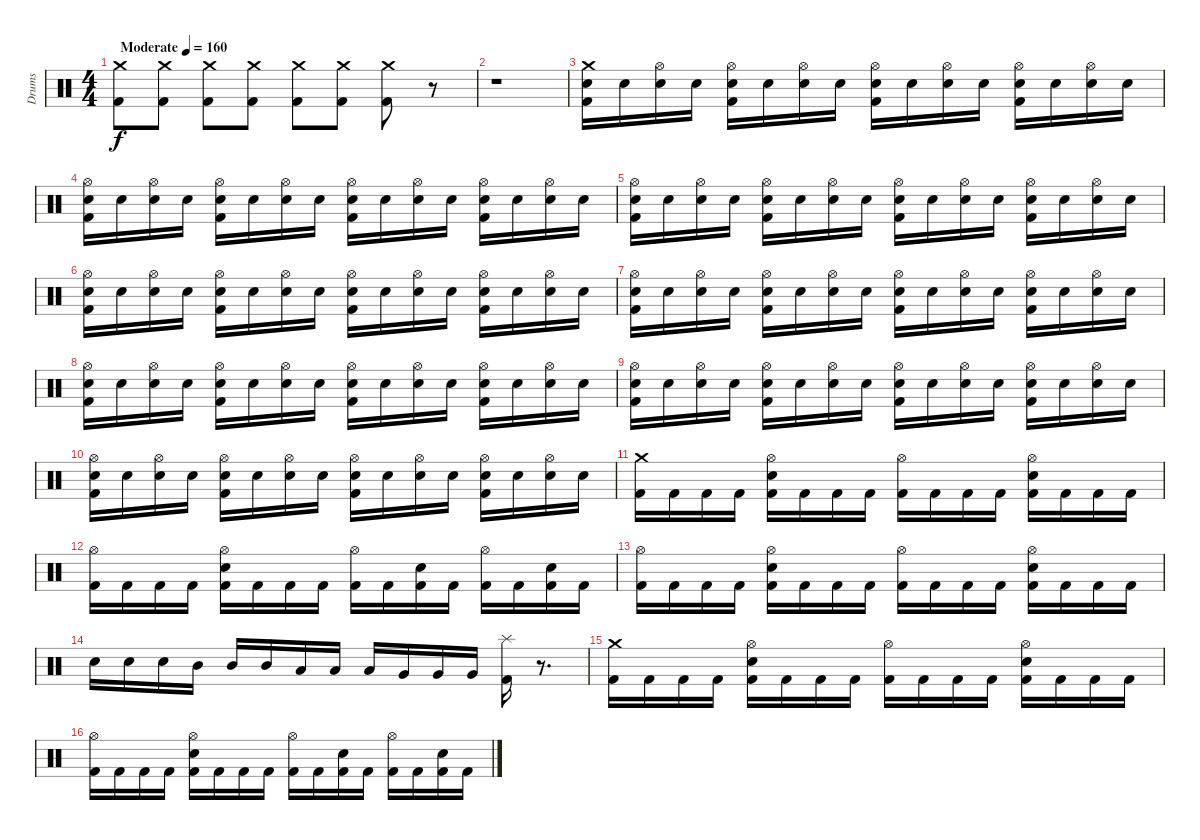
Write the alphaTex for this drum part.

\track ("Drums" "Drums") {instrument percussion}
\staff {score}
\articulation defaults
\ts (4 4)
\tempo (160 "Moderate")
\clef neutral
\ks c
("Kick (hit) 2" "Crash medium (hit)").8{dy f} ("Kick (hit) 2" "Crash medium (hit)").8 ("Crash medium (hit)" "Kick (hit) 2").8 ("Kick (hit) 2" "Crash medium (hit)").8 ("Kick (hit) 2" "Crash medium (hit)").8 ("Kick (hit) 2" "Crash medium (hit)").8 ("Crash medium (hit)" "Kick (hit) 2").8 r.8 |
r.1 |
("Crash medium (hit)" "Electric Snare (hit)" "Kick (hit) 2").16 "Electric Snare (hit)".16 ("Hi-Hat (open)" "Electric Snare (hit)").16 "Electric Snare (hit)".16 ("Hi-Hat (open)" "Kick (hit) 2" "Electric Snare (hit)").16 "Electric Snare (hit)".16 ("Hi-Hat (open)" "Electric Snare (hit)").16 "Electric Snare (hit)".16 ("Hi-Hat (open)" "Kick (hit) 2" "Electric Snare (hit)").16 "Electric Snare (hit)".16 ("Hi-Hat (open)" "Electric Snare (hit)").16 "Electric Snare (hit)".16 ("Hi-Hat (open)" "Kick (hit) 2" "Electric Snare (hit)").16 "Electric Snare (hit)".16 ("Hi-Hat (open)" "Electric Snare (hit)").16 "Electric Snare (hit)".16 |
("Electric Snare (hit)" "Kick (hit) 2" "Hi-Hat (open)").16 "Electric Snare (hit)".16 ("Hi-Hat (open)" "Electric Snare (hit)").16 "Electric Snare (hit)".16 ("Hi-Hat (open)" "Kick (hit) 2" "Electric Snare (hit)").16 "Electric Snare (hit)".16 ("Hi-Hat (open)" "Electric Snare (hit)").16 "Electric Snare (hit)".16 ("Hi-Hat (open)" "Kick (hit) 2" "Electric Snare (hit)").16 "Electric Snare (hit)".16 ("Electric Snare (hit)" "Hi-Hat (open)").16 "Electric Snare (hit)".16 ("Hi-Hat (open)" "Kick (hit) 2" "Electric Snare (hit)").16 "Electric Snare (hit)".16 ("Hi-Hat (open)" "Electric Snare (hit)").16 "Electric Snare (hit)".16 |
("Electric Snare (hit)" "Kick (hit) 2" "Hi-Hat (open)").16 "Electric Snare (hit)".16 ("Hi-Hat (open)" "Electric Snare (hit)").16 "Electric Snare (hit)".16 ("Hi-Hat (open)" "Kick (hit) 2" "Electric Snare (hit)").16 "Electric Snare (hit)".16 ("Hi-Hat (open)" "Electric Snare (hit)").16 "Electric Snare (hit)".16 ("Hi-Hat (open)" "Kick (hit) 2" "Electric Snare (hit)").16 "Electric Snare (hit)".16 ("Electric Snare (hit)" "Hi-Hat (open)").16 "Electric Snare (hit)".16 ("Hi-Hat (open)" "Kick (hit) 2" "Electric Snare (hit)").16 "Electric Snare (hit)".16 ("Hi-Hat (open)" "Electric Snare (hit)").16 "Electric Snare (hit)".16 |
("Electric Snare (hit)" "Kick (hit) 2" "Hi-Hat (open)").16 "Electric Snare (hit)".16 ("Hi-Hat (open)" "Electric Snare (hit)").16 "Electric Snare (hit)".16 ("Hi-Hat (open)" "Kick (hit) 2" "Electric Snare (hit)").16 "Electric Snare (hit)".16 ("Hi-Hat (open)" "Electric Snare (hit)").16 "Electric Snare (hit)".16 ("Hi-Hat (open)" "Kick (hit) 2" "Electric Snare (hit)").16 "Electric Snare (hit)".16 ("Electric Snare (hit)" "Hi-Hat (open)").16 "Electric Snare (hit)".16 ("Hi-Hat (open)" "Kick (hit) 2" "Electric Snare (hit)").16 "Electric Snare (hit)".16 ("Hi-Hat (open)" "Electric Snare (hit)").16 "Electric Snare (hit)".16 |
("Electric Snare (hit)" "Kick (hit) 2" "Hi-Hat (open)").16 "Electric Snare (hit)".16 ("Hi-Hat (open)" "Electric Snare (hit)").16 "Electric Snare (hit)".16 ("Hi-Hat (open)" "Kick (hit) 2" "Electric Snare (hit)").16 "Electric Snare (hit)".16 ("Hi-Hat (open)" "Electric Snare (hit)").16 "Electric Snare (hit)".16 ("Hi-Hat (open)" "Kick (hit) 2" "Electric Snare (hit)").16 "Electric Snare (hit)".16 ("Electric Snare (hit)" "Hi-Hat (open)").16 "Electric Snare (hit)".16 ("Hi-Hat (open)" "Kick (hit) 2" "Electric Snare (hit)").16 "Electric Snare (hit)".16 ("Hi-Hat (open)" "Electric Snare (hit)").16 "Electric Snare (hit)".16 |
("Electric Snare (hit)" "Kick (hit) 2" "Hi-Hat (open)").16 "Electric Snare (hit)".16 ("Hi-Hat (open)" "Electric Snare (hit)").16 "Electric Snare (hit)".16 ("Hi-Hat (open)" "Kick (hit) 2" "Electric Snare (hit)").16 "Electric Snare (hit)".16 ("Hi-Hat (open)" "Electric Snare (hit)").16 "Electric Snare (hit)".16 ("Hi-Hat (open)" "Kick (hit) 2" "Electric Snare (hit)").16 "Electric Snare (hit)".16 ("Electric Snare (hit)" "Hi-Hat (open)").16 "Electric Snare (hit)".16 ("Hi-Hat (open)" "Kick (hit) 2" "Electric Snare (hit)").16 "Electric Snare (hit)".16 ("Hi-Hat (open)" "Electric Snare (hit)").16 "Electric Snare (hit)".16 |
("Electric Snare (hit)" "Kick (hit) 2" "Hi-Hat (open)").16 "Electric Snare (hit)".16 ("Hi-Hat (open)" "Electric Snare (hit)").16 "Electric Snare (hit)".16 ("Hi-Hat (open)" "Kick (hit) 2" "Electric Snare (hit)").16 "Electric Snare (hit)".16 ("Hi-Hat (open)" "Electric Snare (hit)").16 "Electric Snare (hit)".16 ("Hi-Hat (open)" "Kick (hit) 2" "Electric Snare (hit)").16 "Electric Snare (hit)".16 ("Electric Snare (hit)" "Hi-Hat (open)").16 "Electric Snare (hit)".16 ("Hi-Hat (open)" "Kick (hit) 2" "Electric Snare (hit)").16 "Electric Snare (hit)".16 ("Hi-Hat (open)" "Electric Snare (hit)").16 "Electric Snare (hit)".16 |
("Electric Snare (hit)" "Kick (hit) 2" "Hi-Hat (open)").16 "Electric Snare (hit)".16 ("Hi-Hat (open)" "Electric Snare (hit)").16 "Electric Snare (hit)".16 ("Hi-Hat (open)" "Kick (hit) 2" "Electric Snare (hit)").16 "Electric Snare (hit)".16 ("Hi-Hat (open)" "Electric Snare (hit)").16 "Electric Snare (hit)".16 ("Hi-Hat (open)" "Kick (hit) 2" "Electric Snare (hit)").16 "Electric Snare (hit)".16 ("Electric Snare (hit)" "Hi-Hat (open)").16 "Electric Snare (hit)".16 ("Hi-Hat (open)" "Kick (hit) 2" "Electric Snare (hit)").16 "Electric Snare (hit)".16 ("Hi-Hat (open)" "Electric Snare (hit)").16 "Electric Snare (hit)".16 |
("Kick (hit) 2" "Crash medium (hit)").16 "Kick (hit) 2".16 "Kick (hit) 2".16 "Kick (hit) 2".16 ("Hi-Hat (open)" "Electric Snare (hit)" "Kick (hit) 2").16 "Kick (hit) 2".16 "Kick (hit) 2".16 "Kick (hit) 2".16 ("Hi-Hat (open)" "Kick (hit) 2").16 "Kick (hit) 2".16 "Kick (hit) 2".16 "Kick (hit) 2".16 ("Hi-Hat (open)" "Electric Snare (hit)" "Kick (hit) 2").16 "Kick (hit) 2".16 "Kick (hit) 2".16 "Kick (hit) 2".16 |
("Hi-Hat (open)" "Kick (hit) 2").16 "Kick (hit) 2".16 "Kick (hit) 2".16 "Kick (hit) 2".16 ("Hi-Hat (open)" "Electric Snare (hit)" "Kick (hit) 2").16 "Kick (hit) 2".16 "Kick (hit) 2".16 "Kick (hit) 2".16 ("Hi-Hat (open)" "Kick (hit) 2").16 "Kick (hit) 2".16 ("Electric Snare (hit)" "Kick (hit) 2").16 "Kick (hit) 2".16 ("Hi-Hat (open)" "Kick (hit) 2").16 "Kick (hit) 2".16 ("Electric Snare (hit)" "Kick (hit) 2").16 "Kick (hit) 2".16 |
("Hi-Hat (open)" "Kick (hit) 2").16 "Kick (hit) 2".16 "Kick (hit) 2".16 "Kick (hit) 2".16 ("Hi-Hat (open)" "Electric Snare (hit)" "Kick (hit) 2").16 "Kick (hit) 2".16 "Kick (hit) 2".16 "Kick (hit) 2".16 ("Hi-Hat (open)" "Kick (hit) 2").16 "Kick (hit) 2".16 "Kick (hit) 2".16 "Kick (hit) 2".16 ("Electric Snare (hit)" "Hi-Hat (open)" "Kick (hit) 2").16 "Kick (hit) 2".16 "Kick (hit) 2".16 "Kick (hit) 2".16 |
"Electric Snare (hit)".16 "Electric Snare (hit)".16 "Electric Snare (hit)".16 "Mid Tom (hit)".16 "Mid Tom (hit)".16 "Mid Tom (hit)".16 "Low Tom (hit)".16 "Low Tom (hit)".16 "Low Tom (hit)".16 "Very Low Tom (hit)".16 "Very Low Tom (hit)".16 "Very Low Tom (hit)".16 ("Splash (hit)" "Kick (hit) 2").16 r.8{d} |
("Kick (hit) 2" "Crash medium (hit)").16 "Kick (hit) 2".16 "Kick (hit) 2".16 "Kick (hit) 2".16 ("Hi-Hat (open)" "Electric Snare (hit)" "Kick (hit) 2").16 "Kick (hit) 2".16 "Kick (hit) 2".16 "Kick (hit) 2".16 ("Hi-Hat (open)" "Kick (hit) 2").16 "Kick (hit) 2".16 "Kick (hit) 2".16 "Kick (hit) 2".16 ("Hi-Hat (open)" "Electric Snare (hit)" "Kick (hit) 2").16 "Kick (hit) 2".16 "Kick (hit) 2".16 "Kick (hit) 2".16 |
("Hi-Hat (open)" "Kick (hit) 2").16 "Kick (hit) 2".16 "Kick (hit) 2".16 "Kick (hit) 2".16 ("Hi-Hat (open)" "Electric Snare (hit)" "Kick (hit) 2").16 "Kick (hit) 2".16 "Kick (hit) 2".16 "Kick (hit) 2".16 ("Hi-Hat (open)" "Kick (hit) 2").16 "Kick (hit) 2".16 ("Electric Snare (hit)" "Kick (hit) 2").16 "Kick (hit) 2".16 ("Hi-Hat (open)" "Kick (hit) 2").16 "Kick (hit) 2".16 ("Electric Snare (hit)" "Kick (hit) 2").16 "Kick (hit) 2".16
